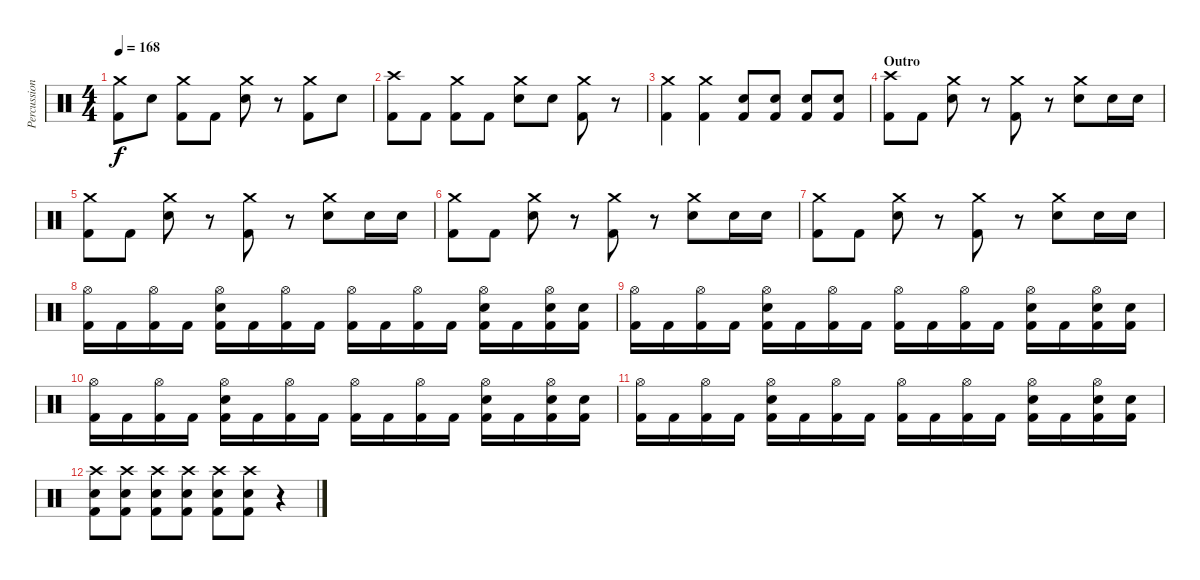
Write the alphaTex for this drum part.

\track ("Percussion" "Percussion") {instrument percussion}
\staff {score}
\articulation defaults
\ts (4 4)
\tempo 168
\clef neutral
\ks c
("Crash medium (hit)" "Kick (hit) 2").8{dy f} "Electric Snare (hit)".8 ("Crash medium (hit)" "Kick (hit) 2").8 "Kick (hit) 2".8 ("Crash medium (hit)" "Electric Snare (hit)").8 r.8 ("Crash medium (hit)" "Kick (hit) 2").8 "Electric Snare (hit)".8 |
("Crash high (hit)" "Kick (hit) 2").8 "Kick (hit) 2".8 ("Crash medium (hit)" "Kick (hit) 2").8 "Kick (hit) 2".8 ("Crash medium (hit)" "Electric Snare (hit)").8 "Electric Snare (hit)".8 ("Crash medium (hit)" "Kick (hit) 2").8 r.8 |
("Crash medium (hit)" "Kick (hit) 2").4 ("Crash medium (hit)" "Kick (hit) 2").4 ("Electric Snare (hit)" "Kick (hit) 2").8 ("Electric Snare (hit)" "Kick (hit) 2").8 ("Electric Snare (hit)" "Kick (hit) 2").8 ("Electric Snare (hit)" "Kick (hit) 2").8 |
\section ("" "Outro")
("Crash high (hit)" "Kick (hit) 2").8 "Kick (hit) 2".8 ("Crash medium (hit)" "Electric Snare (hit)").8 r.8 ("Crash medium (hit)" "Kick (hit) 2").8 r.8 ("Crash medium (hit)" "Electric Snare (hit)").8 "Electric Snare (hit)".16 "Electric Snare (hit)".16 |
("Crash medium (hit)" "Kick (hit) 2").8 "Kick (hit) 2".8 ("Crash medium (hit)" "Electric Snare (hit)").8 r.8 ("Crash medium (hit)" "Kick (hit) 2").8 r.8 ("Crash medium (hit)" "Electric Snare (hit)").8 "Electric Snare (hit)".16 "Electric Snare (hit)".16 |
("Crash medium (hit)" "Kick (hit) 2").8 "Kick (hit) 2".8 ("Crash medium (hit)" "Electric Snare (hit)").8 r.8 ("Crash medium (hit)" "Kick (hit) 2").8 r.8 ("Crash medium (hit)" "Electric Snare (hit)").8 "Electric Snare (hit)".16 "Electric Snare (hit)".16 |
("Crash medium (hit)" "Kick (hit) 2").8 "Kick (hit) 2".8 ("Crash medium (hit)" "Electric Snare (hit)").8 r.8 ("Crash medium (hit)" "Kick (hit) 2").8 r.8 ("Crash medium (hit)" "Electric Snare (hit)").8 "Electric Snare (hit)".16 "Electric Snare (hit)".16 |
("Hi-Hat (open)" "Kick (hit) 2").16 "Kick (hit) 2".16 ("Hi-Hat (open)" "Kick (hit) 2").16 "Kick (hit) 2".16 ("Hi-Hat (open)" "Electric Snare (hit)" "Kick (hit) 2").16 "Kick (hit) 2".16 ("Hi-Hat (open)" "Kick (hit) 2").16 "Kick (hit) 2".16 ("Hi-Hat (open)" "Kick (hit) 2").16 "Kick (hit) 2".16 ("Hi-Hat (open)" "Kick (hit) 2").16 "Kick (hit) 2".16 ("Hi-Hat (open)" "Electric Snare (hit)" "Kick (hit) 2").16 "Kick (hit) 2".16 ("Hi-Hat (open)" "Electric Snare (hit)" "Kick (hit) 2").16 ("Electric Snare (hit)" "Kick (hit) 2").16 |
("Hi-Hat (open)" "Kick (hit) 2").16 "Kick (hit) 2".16 ("Hi-Hat (open)" "Kick (hit) 2").16 "Kick (hit) 2".16 ("Hi-Hat (open)" "Electric Snare (hit)" "Kick (hit) 2").16 "Kick (hit) 2".16 ("Hi-Hat (open)" "Kick (hit) 2").16 "Kick (hit) 2".16 ("Hi-Hat (open)" "Kick (hit) 2").16 "Kick (hit) 2".16 ("Hi-Hat (open)" "Kick (hit) 2").16 "Kick (hit) 2".16 ("Hi-Hat (open)" "Electric Snare (hit)" "Kick (hit) 2").16 "Kick (hit) 2".16 ("Hi-Hat (open)" "Electric Snare (hit)" "Kick (hit) 2").16 ("Electric Snare (hit)" "Kick (hit) 2").16 |
("Hi-Hat (open)" "Kick (hit) 2").16 "Kick (hit) 2".16 ("Hi-Hat (open)" "Kick (hit) 2").16 "Kick (hit) 2".16 ("Hi-Hat (open)" "Electric Snare (hit)" "Kick (hit) 2").16 "Kick (hit) 2".16 ("Hi-Hat (open)" "Kick (hit) 2").16 "Kick (hit) 2".16 ("Hi-Hat (open)" "Kick (hit) 2").16 "Kick (hit) 2".16 ("Hi-Hat (open)" "Kick (hit) 2").16 "Kick (hit) 2".16 ("Hi-Hat (open)" "Electric Snare (hit)" "Kick (hit) 2").16 "Kick (hit) 2".16 ("Hi-Hat (open)" "Electric Snare (hit)" "Kick (hit) 2").16 ("Electric Snare (hit)" "Kick (hit) 2").16 |
("Hi-Hat (open)" "Kick (hit) 2").16 "Kick (hit) 2".16 ("Hi-Hat (open)" "Kick (hit) 2").16 "Kick (hit) 2".16 ("Hi-Hat (open)" "Electric Snare (hit)" "Kick (hit) 2").16 "Kick (hit) 2".16 ("Hi-Hat (open)" "Kick (hit) 2").16 "Kick (hit) 2".16 ("Hi-Hat (open)" "Kick (hit) 2").16 "Kick (hit) 2".16 ("Hi-Hat (open)" "Kick (hit) 2").16 "Kick (hit) 2".16 ("Hi-Hat (open)" "Electric Snare (hit)" "Kick (hit) 2").16 "Kick (hit) 2".16 ("Hi-Hat (open)" "Electric Snare (hit)" "Kick (hit) 2").16 ("Electric Snare (hit)" "Kick (hit) 2").16 |
("Crash high (hit)" "Electric Snare (hit)" "Kick (hit) 2").8 ("Crash high (hit)" "Electric Snare (hit)" "Kick (hit) 2").8 ("Crash high (hit)" "Electric Snare (hit)" "Kick (hit) 2").8 ("Crash high (hit)" "Electric Snare (hit)" "Kick (hit) 2").8 ("Crash high (hit)" "Electric Snare (hit)" "Kick (hit) 2").8 ("Crash high (hit)" "Electric Snare (hit)" "Kick (hit) 2").8 r.4
